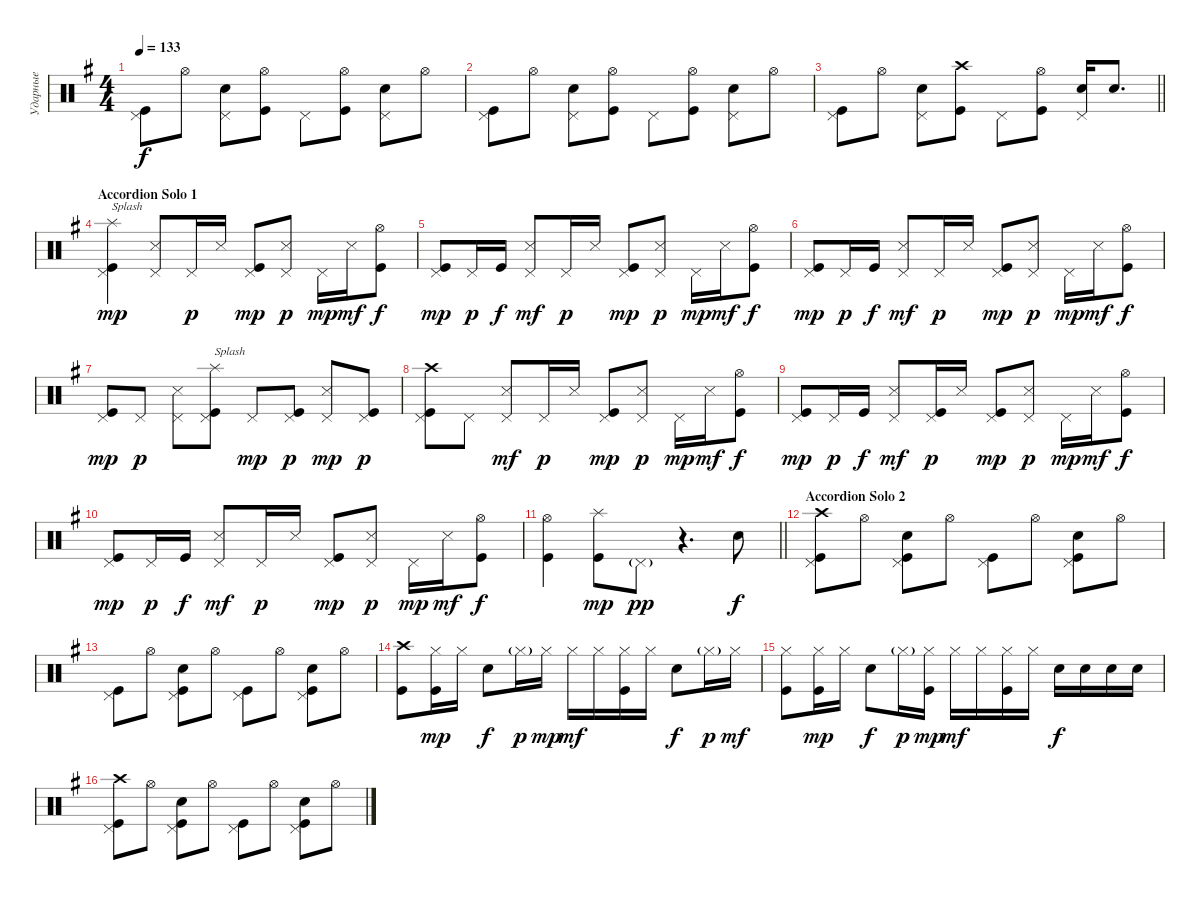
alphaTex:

\track ("Ударные" "Ударные") {instrument percussion}
\staff {score}
\articulation defaults
\ts (4 4)
\tempo 133
\clef neutral
\ks eminor
("Pedal Hi-Hat (hit)" "Kick (hit)").8{dy f} "Hi-Hat (open)".8 ("Pedal Hi-Hat (hit)" "Snare (hit) 2").8 ("Hi-Hat (open)" "Kick (hit)").8 "Pedal Hi-Hat (hit)".8 ("Hi-Hat (open)" "Kick (hit)").8 ("Pedal Hi-Hat (hit)" "Snare (hit) 2").8 "Hi-Hat (open)".8 |
("Pedal Hi-Hat (hit)" "Kick (hit)").8 "Hi-Hat (open)".8 ("Pedal Hi-Hat (hit)" "Snare (hit) 2").8 ("Hi-Hat (open)" "Kick (hit)").8 "Pedal Hi-Hat (hit)".8 ("Hi-Hat (open)" "Kick (hit)").8 ("Pedal Hi-Hat (hit)" "Snare (hit) 2").8 "Hi-Hat (open)".8 |
\barLineRight lightlight
("Pedal Hi-Hat (hit)" "Kick (hit)").8 "Hi-Hat (open)".8 ("Pedal Hi-Hat (hit)" "Snare (hit) 2").8 ("Crash high (hit)" "Kick (hit)").8 "Pedal Hi-Hat (hit)".8 ("Hi-Hat (open)" "Kick (hit)").8 ("Pedal Hi-Hat (hit)" "Snare (hit) 2").16 "Snare (hit) 2".8{d} |
\section ("" "Accordion Solo 1")
("Kick (hit)" "Splash (hit)" "Pedal Hi-Hat (hit)").4{txt "Splash" dy mp} ("Snare (side stick) 3" "Pedal Hi-Hat (hit)").8 "Pedal Hi-Hat (hit)".16{dy p} "Snare (side stick) 3".16 ("Kick (hit)" "Pedal Hi-Hat (hit)").8{dy mp} ("Snare (side stick) 3" "Pedal Hi-Hat (hit)").8{dy p} "Pedal Hi-Hat (hit)".16{dy mp} "Snare (side stick) 3".16{dy mf} ("Kick (hit)" "Hi-Hat (open)").8{dy f} |
("Pedal Hi-Hat (hit)" "Kick (hit)").8{dy mp} "Pedal Hi-Hat (hit)".16{dy p} "Kick (hit)".16{dy f} ("Pedal Hi-Hat (hit)" "Snare (side stick) 3").8{dy mf} "Pedal Hi-Hat (hit)".16{dy p} "Snare (side stick) 3".16 ("Kick (hit)" "Pedal Hi-Hat (hit)").8{dy mp} ("Snare (side stick) 3" "Pedal Hi-Hat (hit)").8{dy p} "Pedal Hi-Hat (hit)".16{dy mp} "Snare (side stick) 3".16{dy mf} ("Kick (hit)" "Hi-Hat (open)").8{dy f} |
("Pedal Hi-Hat (hit)" "Kick (hit)").8{dy mp} "Pedal Hi-Hat (hit)".16{dy p} "Kick (hit)".16{dy f} ("Pedal Hi-Hat (hit)" "Snare (side stick) 3").8{dy mf} "Pedal Hi-Hat (hit)".16{dy p} "Snare (side stick) 3".16 ("Kick (hit)" "Pedal Hi-Hat (hit)").8{dy mp} ("Snare (side stick) 3" "Pedal Hi-Hat (hit)").8{dy p} "Pedal Hi-Hat (hit)".16{dy mp} "Snare (side stick) 3".16{dy mf} ("Kick (hit)" "Hi-Hat (open)").8{dy f} |
("Kick (hit)" "Pedal Hi-Hat (hit)").8{dy mp} "Pedal Hi-Hat (hit)".8{dy p} ("Snare (side stick) 3" "Pedal Hi-Hat (hit)").8 ("Kick (hit)" "Splash (hit)" "Pedal Hi-Hat (hit)").8{txt "Splash"} "Pedal Hi-Hat (hit)".8{dy mp} ("Kick (hit)" "Pedal Hi-Hat (hit)").8{dy p} ("Snare (side stick) 3" "Pedal Hi-Hat (hit)").8{dy mp} ("Kick (hit)" "Pedal Hi-Hat (hit)").8{dy p} |
("Pedal Hi-Hat (hit)" "Kick (hit)" "Crash high (hit)").8 "Pedal Hi-Hat (hit)".8 ("Pedal Hi-Hat (hit)" "Snare (side stick) 3").8{dy mf} "Pedal Hi-Hat (hit)".16{dy p} "Snare (side stick) 3".16 ("Kick (hit)" "Pedal Hi-Hat (hit)").8{dy mp} ("Snare (side stick) 3" "Pedal Hi-Hat (hit)").8{dy p} "Pedal Hi-Hat (hit)".16{dy mp} "Snare (side stick) 3".16{dy mf} ("Kick (hit)" "Hi-Hat (open)").8{dy f} |
("Pedal Hi-Hat (hit)" "Kick (hit)").8{dy mp} "Pedal Hi-Hat (hit)".16{dy p} "Kick (hit)".16{dy f} ("Pedal Hi-Hat (hit)" "Snare (side stick) 3").8{dy mf} ("Kick (hit)" "Pedal Hi-Hat (hit)").16{dy p} "Snare (side stick) 3".16 ("Kick (hit)" "Pedal Hi-Hat (hit)").8{dy mp} ("Snare (side stick) 3" "Pedal Hi-Hat (hit)").8{dy p} "Pedal Hi-Hat (hit)".16{dy mp} "Snare (side stick) 3".16{dy mf} ("Kick (hit)" "Hi-Hat (open)").8{dy f} |
("Pedal Hi-Hat (hit)" "Kick (hit)").8{dy mp} "Pedal Hi-Hat (hit)".16{dy p} "Kick (hit)".16{dy f} ("Pedal Hi-Hat (hit)" "Snare (side stick) 3").8{dy mf} "Pedal Hi-Hat (hit)".16{dy p} "Snare (side stick) 3".16 ("Kick (hit)" "Pedal Hi-Hat (hit)").8{dy mp} ("Snare (side stick) 3" "Pedal Hi-Hat (hit)").8{dy p} "Pedal Hi-Hat (hit)".16{dy mp} "Snare (side stick) 3".16{dy mf} ("Kick (hit)" "Hi-Hat (open)").8{dy f} |
\barLineRight lightlight
("Kick (hit)" "Hi-Hat (open)").4 ("Kick (hit)" "Splash (hit)").8{dy mp} "Pedal Hi-Hat (hit)"{g}.8{dy pp} r.4{d} "Snare (hit) 2".8{dy f} |
\section ("" "Accordion Solo 2")
("Pedal Hi-Hat (hit)" "Kick (hit)" "Crash high (hit)").8 "Hi-Hat (open)".8 ("Pedal Hi-Hat (hit)" "Snare (hit) 2" "Kick (hit)").8 "Hi-Hat (open)".8 ("Pedal Hi-Hat (hit)" "Kick (hit)").8 "Hi-Hat (open)".8 ("Pedal Hi-Hat (hit)" "Snare (hit) 2" "Kick (hit)").8 "Hi-Hat (open)".8 |
("Pedal Hi-Hat (hit)" "Kick (hit)").8 "Hi-Hat (open)".8 ("Pedal Hi-Hat (hit)" "Snare (hit) 2" "Kick (hit)").8 "Hi-Hat (open)".8 ("Pedal Hi-Hat (hit)" "Kick (hit)").8 "Hi-Hat (open)".8 ("Pedal Hi-Hat (hit)" "Snare (hit) 2" "Kick (hit)").8 "Hi-Hat (open)".8 |
("Kick (hit)" "Crash high (hit)").8 ("Kick (hit)" "Hi-Hat (closed)").16{dy mp} "Hi-Hat (closed)".16 "Snare (hit) 2".8{dy f} "Hi-Hat (closed)"{g}.16{dy p} "Hi-Hat (closed)".16{dy mp} "Hi-Hat (closed)".16{dy mf} "Hi-Hat (closed)".16 ("Hi-Hat (closed)" "Kick (hit)").16 "Hi-Hat (closed)".16 "Snare (hit) 2".8{dy f} "Hi-Hat (closed)"{g}.16{dy p} "Hi-Hat (closed)".16{dy mf} |
("Kick (hit)" "Hi-Hat (closed)").8 ("Kick (hit)" "Hi-Hat (closed)").16{dy mp} "Hi-Hat (closed)".16 "Snare (hit) 2".8{dy f} "Hi-Hat (closed)"{g}.16{dy p} ("Hi-Hat (closed)" "Kick (hit)").16{dy mp} "Hi-Hat (closed)".16{dy mf} "Hi-Hat (closed)".16 ("Hi-Hat (closed)" "Kick (hit)").16 "Hi-Hat (closed)".16 "Snare (hit) 2".16{dy f} "Snare (hit) 2".16 "Snare (hit) 2".16 "Snare (hit) 2".16 |
("Pedal Hi-Hat (hit)" "Kick (hit)" "Crash high (hit)").8 "Hi-Hat (open)".8 ("Pedal Hi-Hat (hit)" "Snare (hit) 2" "Kick (hit)").8 "Hi-Hat (open)".8 ("Pedal Hi-Hat (hit)" "Kick (hit)").8 "Hi-Hat (open)".8 ("Pedal Hi-Hat (hit)" "Snare (hit) 2" "Kick (hit)").8 "Hi-Hat (open)".8
